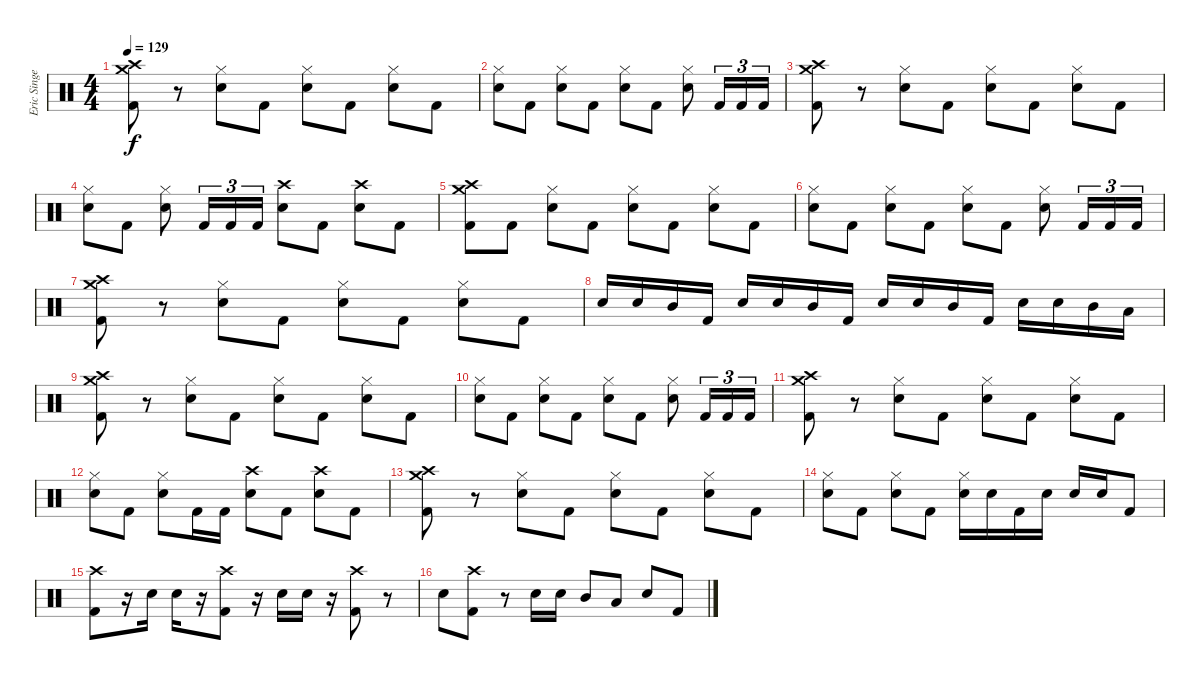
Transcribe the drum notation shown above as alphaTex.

\track ("Eric Singer" "Eric Singe") {instrument percussion}
\staff {score}
\articulation defaults
\ts (4 4)
\tempo 129
\clef neutral
\ks c
("Crash high (hit)" "Crash medium (hit)" "Kick (hit) 2").8{dy f} r.8 ("Hi-Hat (closed)" "Electric Snare (hit)").8 "Kick (hit) 2".8 ("Hi-Hat (closed)" "Electric Snare (hit)").8 "Kick (hit) 2".8 ("Hi-Hat (closed)" "Electric Snare (hit)").8 "Kick (hit) 2".8 |
("Hi-Hat (closed)" "Electric Snare (hit)").8 "Kick (hit) 2".8 ("Hi-Hat (closed)" "Electric Snare (hit)").8 "Kick (hit) 2".8 ("Hi-Hat (closed)" "Electric Snare (hit)").8 "Kick (hit) 2".8 ("Hi-Hat (closed)" "Electric Snare (hit)").8 "Kick (hit) 2".16{tu (3 2)} "Kick (hit) 2".16{tu (3 2)} "Kick (hit) 2".16{tu (3 2)} |
("Crash high (hit)" "Crash medium (hit)" "Kick (hit) 2").8 r.8 ("Hi-Hat (closed)" "Electric Snare (hit)").8 "Kick (hit) 2".8 ("Hi-Hat (closed)" "Electric Snare (hit)").8 "Kick (hit) 2".8 ("Hi-Hat (closed)" "Electric Snare (hit)").8 "Kick (hit) 2".8 |
("Hi-Hat (closed)" "Electric Snare (hit)").8 "Kick (hit) 2".8 ("Hi-Hat (closed)" "Electric Snare (hit)").8 "Kick (hit) 2".16{tu (3 2)} "Kick (hit) 2".16{tu (3 2)} "Kick (hit) 2".16{tu (3 2)} ("Crash high (hit)" "Electric Snare (hit)").8 "Kick (hit) 2".8 ("Crash high (hit)" "Electric Snare (hit)").8 "Kick (hit) 2".8 |
("Crash high (hit)" "Crash medium (hit)" "Kick (hit) 2").8 "Kick (hit) 2".8 ("Hi-Hat (closed)" "Electric Snare (hit)").8 "Kick (hit) 2".8 ("Hi-Hat (closed)" "Electric Snare (hit)").8 "Kick (hit) 2".8 ("Hi-Hat (closed)" "Electric Snare (hit)").8 "Kick (hit) 2".8 |
("Hi-Hat (closed)" "Electric Snare (hit)").8 "Kick (hit) 2".8 ("Hi-Hat (closed)" "Electric Snare (hit)").8 "Kick (hit) 2".8 ("Hi-Hat (closed)" "Electric Snare (hit)").8 "Kick (hit) 2".8 ("Hi-Hat (closed)" "Electric Snare (hit)").8 "Kick (hit) 2".16{tu (3 2)} "Kick (hit) 2".16{tu (3 2)} "Kick (hit) 2".16{tu (3 2)} |
("Crash high (hit)" "Crash medium (hit)" "Kick (hit) 2").8 r.8 ("Hi-Hat (closed)" "Electric Snare (hit)").8 "Kick (hit) 2".8 ("Hi-Hat (closed)" "Electric Snare (hit)").8 "Kick (hit) 2".8 ("Hi-Hat (closed)" "Electric Snare (hit)").8 "Kick (hit) 2".8 |
"Electric Snare (hit)".16 "Electric Snare (hit)".16 "Mid Tom (hit)".16 "Kick (hit) 2".16 "Electric Snare (hit)".16 "Electric Snare (hit)".16 "Mid Tom (hit)".16 "Kick (hit) 2".16 "Electric Snare (hit)".16 "Electric Snare (hit)".16 "Mid Tom (hit)".16 "Kick (hit) 2".16 "Electric Snare (hit)".16 "Electric Snare (hit)".16 "Mid Tom (hit)".16 "Low Tom (hit)".16 |
("Crash high (hit)" "Crash medium (hit)" "Kick (hit) 2").8 r.8 ("Hi-Hat (closed)" "Electric Snare (hit)").8 "Kick (hit) 2".8 ("Hi-Hat (closed)" "Electric Snare (hit)").8 "Kick (hit) 2".8 ("Hi-Hat (closed)" "Electric Snare (hit)").8 "Kick (hit) 2".8 |
("Hi-Hat (closed)" "Electric Snare (hit)").8 "Kick (hit) 2".8 ("Hi-Hat (closed)" "Electric Snare (hit)").8 "Kick (hit) 2".8 ("Hi-Hat (closed)" "Electric Snare (hit)").8 "Kick (hit) 2".8 ("Hi-Hat (closed)" "Electric Snare (hit)").8 "Kick (hit) 2".16{tu (3 2)} "Kick (hit) 2".16{tu (3 2)} "Kick (hit) 2".16{tu (3 2)} |
("Crash high (hit)" "Crash medium (hit)" "Kick (hit) 2").8 r.8 ("Hi-Hat (closed)" "Electric Snare (hit)").8 "Kick (hit) 2".8 ("Hi-Hat (closed)" "Electric Snare (hit)").8 "Kick (hit) 2".8 ("Hi-Hat (closed)" "Electric Snare (hit)").8 "Kick (hit) 2".8 |
("Hi-Hat (closed)" "Electric Snare (hit)").8 "Kick (hit) 2".8 ("Hi-Hat (closed)" "Electric Snare (hit)").8 "Kick (hit) 2".16 "Kick (hit) 2".16 ("Crash high (hit)" "Electric Snare (hit)").8 "Kick (hit) 2".8 ("Crash high (hit)" "Electric Snare (hit)").8 "Kick (hit) 2".8 |
("Crash high (hit)" "Crash medium (hit)" "Kick (hit) 2").8 r.8 ("Hi-Hat (closed)" "Electric Snare (hit)").8 "Kick (hit) 2".8 ("Hi-Hat (closed)" "Electric Snare (hit)").8 "Kick (hit) 2".8 ("Hi-Hat (closed)" "Electric Snare (hit)").8 "Kick (hit) 2".8 |
("Hi-Hat (closed)" "Electric Snare (hit)").8 "Kick (hit) 2".8 ("Hi-Hat (closed)" "Electric Snare (hit)").8 "Kick (hit) 2".8 ("Hi-Hat (closed)" "Electric Snare (hit)").16 "Electric Snare (hit)".16 "Kick (hit) 2".16 "Electric Snare (hit)".16 "Electric Snare (hit)".16 "Electric Snare (hit)".16 "Kick (hit) 2".8 |
("Crash high (hit)" "Kick (hit) 2").8 r.16 "Electric Snare (hit)".16 "Electric Snare (hit)".16 r.16 ("Crash high (hit)" "Kick (hit) 2").8 r.16 "Electric Snare (hit)".16 "Electric Snare (hit)".16 r.16 ("Crash high (hit)" "Kick (hit) 2").8 r.8 |
"Electric Snare (hit)".8 ("Crash high (hit)" "Kick (hit) 2").8 r.8 "Electric Snare (hit)".16 "Electric Snare (hit)".16 "Mid Tom (hit)".8 "Low Tom (hit)".8 "Electric Snare (hit)".8 "Kick (hit) 2".8
